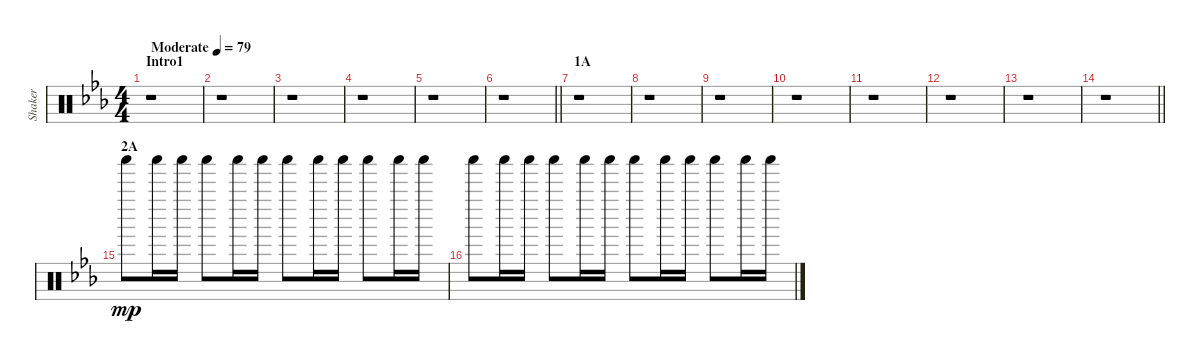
\track ("Shaker" "Shaker") {instrument percussion}
\staff {score}
\articulation defaults
\ts (4 4)
\section ("" "Intro1")
\tempo (79 "Moderate")
\clef neutral
\ks eb
r.1{dy mp} |
r.1 |
r.1 |
r.1 |
r.1 |
\barLineRight lightlight
r.1 |
\section ("" "1A")
r.1 |
r.1 |
r.1 |
r.1 |
r.1 |
r.1 |
r.1 |
\barLineRight lightlight
r.1 |
\section ("" "2A")
"Shaker (hit)".8 "Shaker (hit)".16 "Shaker (hit)".16 "Shaker (hit)".8 "Shaker (hit)".16 "Shaker (hit)".16 "Shaker (hit)".8 "Shaker (hit)".16 "Shaker (hit)".16 "Shaker (hit)".8 "Shaker (hit)".16 "Shaker (hit)".16 |
"Shaker (hit)".8 "Shaker (hit)".16 "Shaker (hit)".16 "Shaker (hit)".8 "Shaker (hit)".16 "Shaker (hit)".16 "Shaker (hit)".8 "Shaker (hit)".16 "Shaker (hit)".16 "Shaker (hit)".8 "Shaker (hit)".16 "Shaker (hit)".16
